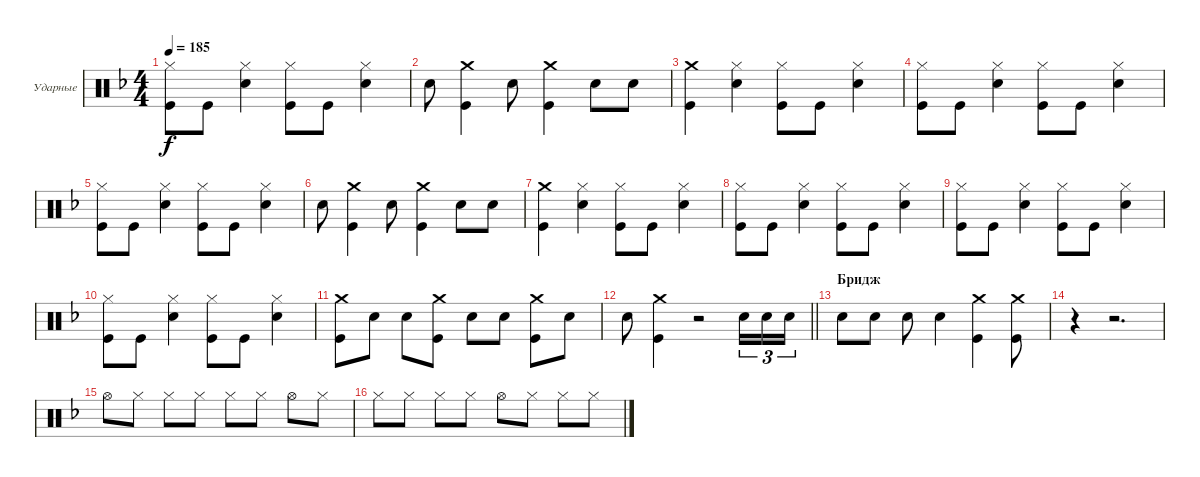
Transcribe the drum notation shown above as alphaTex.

\bracketExtendMode groupsimilarinstruments
\firstSystemTrackNameOrientation horizontal
\otherSystemsTrackNameOrientation horizontal
\track ("Александр Львов" "Ударные") {instrument percussion}
\staff {score}
\articulation defaults
\ts (4 4)
\tempo 185
\clef neutral
\ks dminor
("Kick (hit)" "Hi-Hat (closed)").8{dy f} "Kick (hit)".8 ("Snare (hit) 2" "Hi-Hat (closed)").4 ("Kick (hit)" "Hi-Hat (closed)").8 "Kick (hit)".8 ("Hi-Hat (closed)" "Snare (hit) 2").4 |
"Snare (hit) 2".8 ("Kick (hit)" "Crash medium (hit)").4 "Snare (hit) 2".8 ("Kick (hit)" "Crash medium (hit)").4 "Snare (hit) 2".8 "Snare (hit) 2".8 |
("Kick (hit)" "Crash medium (hit)").4 ("Snare (hit) 2" "Hi-Hat (closed)").4 ("Kick (hit)" "Hi-Hat (closed)").8 "Kick (hit)".8 ("Hi-Hat (closed)" "Snare (hit) 2").4 |
("Kick (hit)" "Hi-Hat (closed)").8 "Kick (hit)".8 ("Snare (hit) 2" "Hi-Hat (closed)").4 ("Kick (hit)" "Hi-Hat (closed)").8 "Kick (hit)".8 ("Hi-Hat (closed)" "Snare (hit) 2").4 |
("Kick (hit)" "Hi-Hat (closed)").8 "Kick (hit)".8 ("Snare (hit) 2" "Hi-Hat (closed)").4 ("Kick (hit)" "Hi-Hat (closed)").8 "Kick (hit)".8 ("Hi-Hat (closed)" "Snare (hit) 2").4 |
"Snare (hit) 2".8 ("Kick (hit)" "Crash medium (hit)").4 "Snare (hit) 2".8 ("Kick (hit)" "Crash medium (hit)").4 "Snare (hit) 2".8 "Snare (hit) 2".8 |
("Kick (hit)" "Crash medium (hit)").4 ("Snare (hit) 2" "Hi-Hat (closed)").4 ("Kick (hit)" "Hi-Hat (closed)").8 "Kick (hit)".8 ("Hi-Hat (closed)" "Snare (hit) 2").4 |
("Kick (hit)" "Hi-Hat (closed)").8 "Kick (hit)".8 ("Snare (hit) 2" "Hi-Hat (closed)").4 ("Kick (hit)" "Hi-Hat (closed)").8 "Kick (hit)".8 ("Hi-Hat (closed)" "Snare (hit) 2").4 |
("Kick (hit)" "Hi-Hat (closed)").8 "Kick (hit)".8 ("Snare (hit) 2" "Hi-Hat (closed)").4 ("Kick (hit)" "Hi-Hat (closed)").8 "Kick (hit)".8 ("Hi-Hat (closed)" "Snare (hit) 2").4 |
("Kick (hit)" "Hi-Hat (closed)").8 "Kick (hit)".8 ("Snare (hit) 2" "Hi-Hat (closed)").4 ("Kick (hit)" "Hi-Hat (closed)").8 "Kick (hit)".8 ("Hi-Hat (closed)" "Snare (hit) 2").4 |
("Kick (hit)" "Crash medium (hit)").8 "Snare (hit) 2".8 "Snare (hit) 2".8 ("Kick (hit)" "Crash medium (hit)").8 "Snare (hit) 2".8 "Snare (hit) 2".8 ("Kick (hit)" "Crash medium (hit)").8 "Snare (hit) 2".8 |
\barLineRight lightlight "Snare (hit) 2".8
("Kick (hit)" "Crash medium (hit)").4 r.2 "Snare (hit) 2".16{tu (3 2)} "Snare (hit) 2".16{tu (3 2)} "Snare (hit) 2".16{tu (3 2)} |
\section ("" "Бридж")
"Snare (hit) 2".8 "Snare (hit) 2".8 "Snare (hit) 2".8 "Snare (hit) 2".4 ("Kick (hit)" "Crash medium (hit)").4 ("Kick (hit)" "Crash medium (hit)").8 |
r.4 r.2{d} |
"Hi-Hat (open)".8 "Hi-Hat (closed)".8 "Hi-Hat (closed)".8 "Hi-Hat (closed)".8 "Hi-Hat (closed)".8 "Hi-Hat (closed)".8 "Hi-Hat (open)".8 "Hi-Hat (closed)".8 |
"Hi-Hat (closed)".8 "Hi-Hat (closed)".8 "Hi-Hat (closed)".8 "Hi-Hat (closed)".8 "Hi-Hat (open)".8 "Hi-Hat (closed)".8 "Hi-Hat (closed)".8 "Hi-Hat (closed)".8
